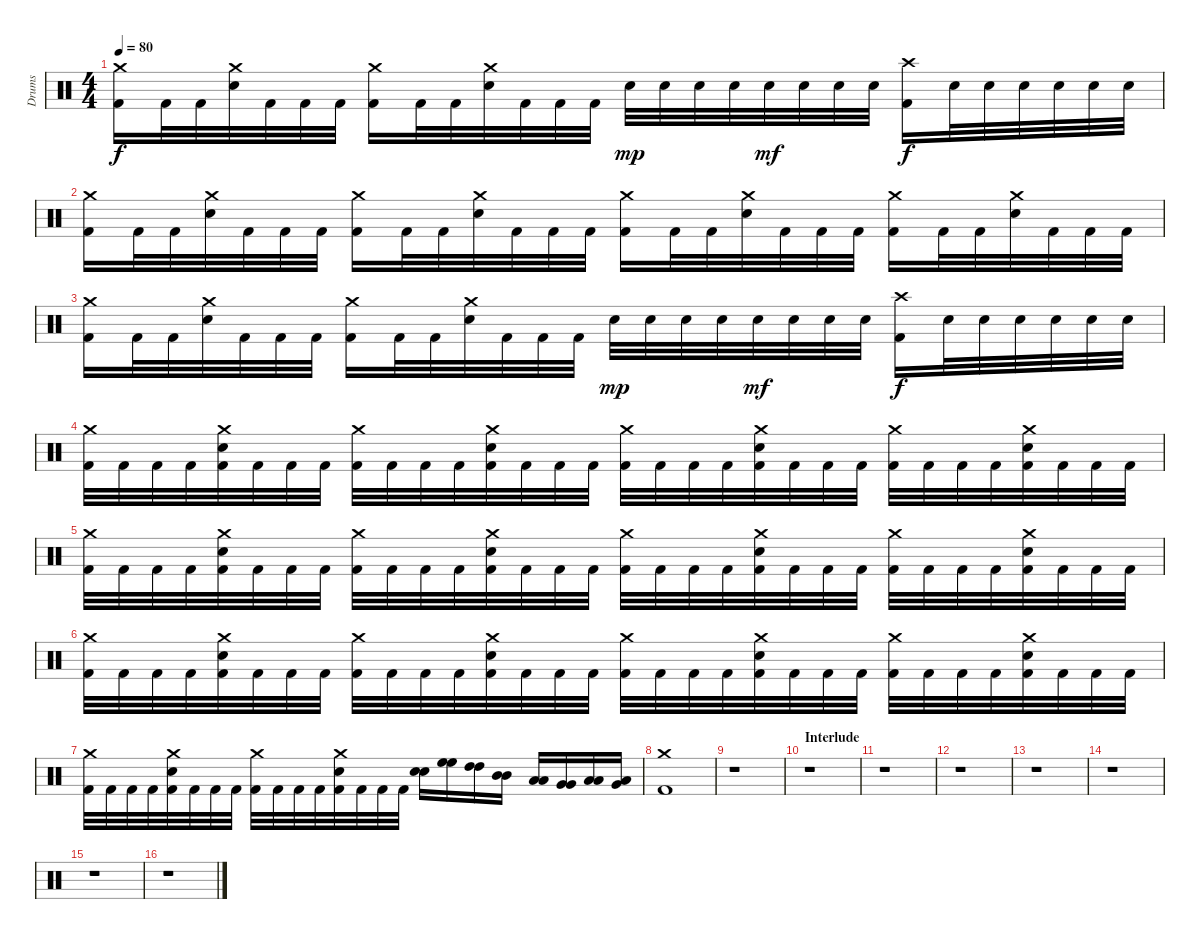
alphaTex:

\track ("Drums" "Drums") {instrument percussion}
\staff {score}
\articulation defaults
\ts (4 4)
\tempo 80
\clef neutral
\ks c
("Crash medium (hit)" "Kick (hit) 2").16{dy f} "Kick (hit) 2".32 "Kick (hit) 2".32 ("Crash medium (hit)" "Electric Snare (hit)").32 "Kick (hit) 2".32 "Kick (hit) 2".32 "Kick (hit) 2".32 ("Crash medium (hit)" "Kick (hit) 2").16 "Kick (hit) 2".32 "Kick (hit) 2".32 ("Crash medium (hit)" "Electric Snare (hit)").32 "Kick (hit) 2".32 "Kick (hit) 2".32 "Kick (hit) 2".32 "Electric Snare (hit)".32{dy mp} "Electric Snare (hit)".32 "Electric Snare (hit)".32 "Electric Snare (hit)".32 "Electric Snare (hit)".32{dy mf} "Electric Snare (hit)".32 "Electric Snare (hit)".32 "Electric Snare (hit)".32 ("Crash high (hit)" "Kick (hit) 2").16{dy f} "Electric Snare (hit)".32 "Electric Snare (hit)".32 "Electric Snare (hit)".32 "Electric Snare (hit)".32 "Electric Snare (hit)".32 "Electric Snare (hit)".32 |
("Crash medium (hit)" "Kick (hit) 2").16 "Kick (hit) 2".32 "Kick (hit) 2".32 ("Crash medium (hit)" "Electric Snare (hit)").32 "Kick (hit) 2".32 "Kick (hit) 2".32 "Kick (hit) 2".32 ("Crash medium (hit)" "Kick (hit) 2").16 "Kick (hit) 2".32 "Kick (hit) 2".32 ("Crash medium (hit)" "Electric Snare (hit)").32 "Kick (hit) 2".32 "Kick (hit) 2".32 "Kick (hit) 2".32 ("Crash medium (hit)" "Kick (hit) 2").16 "Kick (hit) 2".32 "Kick (hit) 2".32 ("Crash medium (hit)" "Electric Snare (hit)").32 "Kick (hit) 2".32 "Kick (hit) 2".32 "Kick (hit) 2".32 ("Crash medium (hit)" "Kick (hit) 2").16 "Kick (hit) 2".32 "Kick (hit) 2".32 ("Crash medium (hit)" "Electric Snare (hit)").32 "Kick (hit) 2".32 "Kick (hit) 2".32 "Kick (hit) 2".32 |
("Crash medium (hit)" "Kick (hit) 2").16 "Kick (hit) 2".32 "Kick (hit) 2".32 ("Crash medium (hit)" "Electric Snare (hit)").32 "Kick (hit) 2".32 "Kick (hit) 2".32 "Kick (hit) 2".32 ("Crash medium (hit)" "Kick (hit) 2").16 "Kick (hit) 2".32 "Kick (hit) 2".32 ("Crash medium (hit)" "Electric Snare (hit)").32 "Kick (hit) 2".32 "Kick (hit) 2".32 "Kick (hit) 2".32 "Electric Snare (hit)".32{dy mp} "Electric Snare (hit)".32 "Electric Snare (hit)".32 "Electric Snare (hit)".32 "Electric Snare (hit)".32{dy mf} "Electric Snare (hit)".32 "Electric Snare (hit)".32 "Electric Snare (hit)".32 ("Crash high (hit)" "Kick (hit) 2").16{dy f} "Electric Snare (hit)".32 "Electric Snare (hit)".32 "Electric Snare (hit)".32 "Electric Snare (hit)".32 "Electric Snare (hit)".32 "Electric Snare (hit)".32 |
("Crash medium (hit)" "Kick (hit) 2").32 "Kick (hit) 2".32 "Kick (hit) 2".32 "Kick (hit) 2".32 ("Crash medium (hit)" "Electric Snare (hit)" "Kick (hit) 2").32 "Kick (hit) 2".32 "Kick (hit) 2".32 "Kick (hit) 2".32 ("Crash medium (hit)" "Kick (hit) 2").32 "Kick (hit) 2".32 "Kick (hit) 2".32 "Kick (hit) 2".32 ("Crash medium (hit)" "Electric Snare (hit)" "Kick (hit) 2").32 "Kick (hit) 2".32 "Kick (hit) 2".32 "Kick (hit) 2".32 ("Crash medium (hit)" "Kick (hit) 2").32 "Kick (hit) 2".32 "Kick (hit) 2".32 "Kick (hit) 2".32 ("Crash medium (hit)" "Electric Snare (hit)" "Kick (hit) 2").32 "Kick (hit) 2".32 "Kick (hit) 2".32 "Kick (hit) 2".32 ("Crash medium (hit)" "Kick (hit) 2").32 "Kick (hit) 2".32 "Kick (hit) 2".32 "Kick (hit) 2".32 ("Crash medium (hit)" "Electric Snare (hit)" "Kick (hit) 2").32 "Kick (hit) 2".32 "Kick (hit) 2".32 "Kick (hit) 2".32 |
("Crash medium (hit)" "Kick (hit) 2").32 "Kick (hit) 2".32 "Kick (hit) 2".32 "Kick (hit) 2".32 ("Crash medium (hit)" "Electric Snare (hit)" "Kick (hit) 2").32 "Kick (hit) 2".32 "Kick (hit) 2".32 "Kick (hit) 2".32 ("Crash medium (hit)" "Kick (hit) 2").32 "Kick (hit) 2".32 "Kick (hit) 2".32 "Kick (hit) 2".32 ("Crash medium (hit)" "Electric Snare (hit)" "Kick (hit) 2").32 "Kick (hit) 2".32 "Kick (hit) 2".32 "Kick (hit) 2".32 ("Crash medium (hit)" "Kick (hit) 2").32 "Kick (hit) 2".32 "Kick (hit) 2".32 "Kick (hit) 2".32 ("Crash medium (hit)" "Electric Snare (hit)" "Kick (hit) 2").32 "Kick (hit) 2".32 "Kick (hit) 2".32 "Kick (hit) 2".32 ("Crash medium (hit)" "Kick (hit) 2").32 "Kick (hit) 2".32 "Kick (hit) 2".32 "Kick (hit) 2".32 ("Crash medium (hit)" "Electric Snare (hit)" "Kick (hit) 2").32 "Kick (hit) 2".32 "Kick (hit) 2".32 "Kick (hit) 2".32 |
("Crash medium (hit)" "Kick (hit) 2").32 "Kick (hit) 2".32 "Kick (hit) 2".32 "Kick (hit) 2".32 ("Crash medium (hit)" "Electric Snare (hit)" "Kick (hit) 2").32 "Kick (hit) 2".32 "Kick (hit) 2".32 "Kick (hit) 2".32 ("Crash medium (hit)" "Kick (hit) 2").32 "Kick (hit) 2".32 "Kick (hit) 2".32 "Kick (hit) 2".32 ("Crash medium (hit)" "Electric Snare (hit)" "Kick (hit) 2").32 "Kick (hit) 2".32 "Kick (hit) 2".32 "Kick (hit) 2".32 ("Crash medium (hit)" "Kick (hit) 2").32 "Kick (hit) 2".32 "Kick (hit) 2".32 "Kick (hit) 2".32 ("Crash medium (hit)" "Electric Snare (hit)" "Kick (hit) 2").32 "Kick (hit) 2".32 "Kick (hit) 2".32 "Kick (hit) 2".32 ("Crash medium (hit)" "Kick (hit) 2").32 "Kick (hit) 2".32 "Kick (hit) 2".32 "Kick (hit) 2".32 ("Crash medium (hit)" "Electric Snare (hit)" "Kick (hit) 2").32 "Kick (hit) 2".32 "Kick (hit) 2".32 "Kick (hit) 2".32 |
("Crash medium (hit)" "Kick (hit) 2").32 "Kick (hit) 2".32 "Kick (hit) 2".32 "Kick (hit) 2".32 ("Crash medium (hit)" "Electric Snare (hit)" "Kick (hit) 2").32 "Kick (hit) 2".32 "Kick (hit) 2".32 "Kick (hit) 2".32 ("Crash medium (hit)" "Kick (hit) 2").32 "Kick (hit) 2".32 "Kick (hit) 2".32 "Kick (hit) 2".32 ("Crash medium (hit)" "Electric Snare (hit)" "Kick (hit) 2").32 "Kick (hit) 2".32 "Kick (hit) 2".32 "Kick (hit) 2".32 ("Electric Snare (hit)" "Electric Snare (hit)").16 ("High Floor Tom (hit)" "High Floor Tom (hit)").16 ("High Tom (hit)" "High Tom (hit)").16 ("Mid Tom (hit)" "Mid Tom (hit)").16 ("Low Tom (hit)" "Low Tom (hit)").16 ("Very Low Tom (hit)" "Very Low Tom (hit)").16 ("Low Floor Tom (hit)" "Low Floor Tom (hit)").16 ("Low Floor Tom (hit)" "Very Low Tom (hit)").16 |
("Kick (hit) 2" "Crash medium (hit)").1 |
r.1 |
\section ("" "Interlude")
r.1 |
r.1 |
r.1 |
r.1 |
r.1 |
r.1 |
r.1
